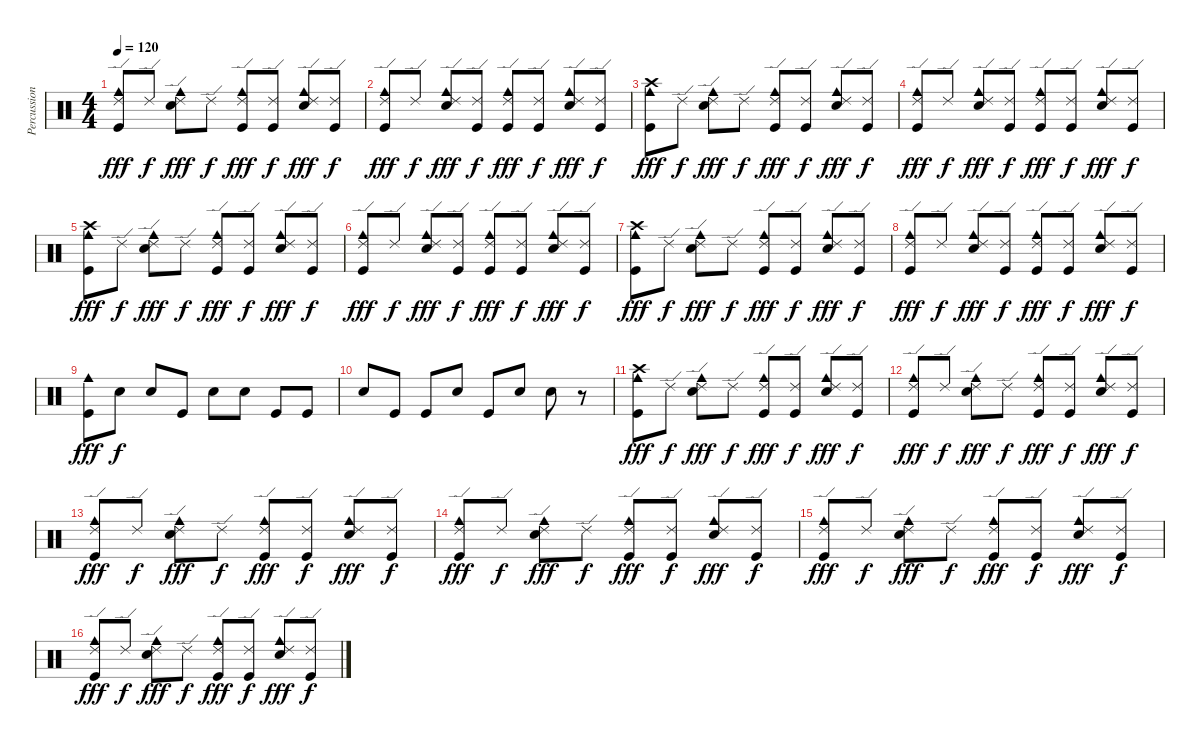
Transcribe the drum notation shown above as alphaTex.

\track ("Percussion" "Percussion") {instrument percussion}
\staff {score}
\articulation defaults
\ts (4 4)
\tempo 120
\clef neutral
\ks c
("Ride (edge) 2" "Cowbell medium (hit)" "Kick (hit)").8{dy fff} "Ride (edge) 2".8{dy f} ("Ride (edge) 2" "Cowbell medium (hit)" "Snare (hit) 2").8{dy fff} "Ride (edge) 2".8{dy f} ("Ride (edge) 2" "Cowbell medium (hit)" "Kick (hit)").8{dy fff} ("Ride (edge) 2" "Kick (hit)").8{dy f} ("Ride (edge) 2" "Cowbell medium (hit)" "Snare (hit) 2").8{dy fff} ("Ride (edge) 2" "Kick (hit)").8{dy f} |
("Ride (edge) 2" "Cowbell medium (hit)" "Kick (hit)").8{dy fff} "Ride (edge) 2".8{dy f} ("Ride (edge) 2" "Cowbell medium (hit)" "Snare (hit) 2").8{dy fff} ("Ride (edge) 2" "Kick (hit)").8{dy f} ("Ride (edge) 2" "Cowbell medium (hit)" "Kick (hit)").8{dy fff} ("Ride (edge) 2" "Kick (hit)").8{dy f} ("Ride (edge) 2" "Cowbell medium (hit)" "Snare (hit) 2").8{dy fff} ("Ride (edge) 2" "Kick (hit)").8{dy f} |
("Crash high (hit)" "Cowbell medium (hit)" "Kick (hit)").8{dy fff} "Ride (edge) 2".8{dy f} ("Ride (edge) 2" "Cowbell medium (hit)" "Snare (hit) 2").8{dy fff} "Ride (edge) 2".8{dy f} ("Ride (edge) 2" "Cowbell medium (hit)" "Kick (hit)").8{dy fff} ("Ride (edge) 2" "Kick (hit)").8{dy f} ("Ride (edge) 2" "Cowbell medium (hit)" "Snare (hit) 2").8{dy fff} ("Ride (edge) 2" "Kick (hit)").8{dy f} |
("Ride (edge) 2" "Cowbell medium (hit)" "Kick (hit)").8{dy fff} "Ride (edge) 2".8{dy f} ("Ride (edge) 2" "Cowbell medium (hit)" "Snare (hit) 2").8{dy fff} ("Ride (edge) 2" "Kick (hit)").8{dy f} ("Ride (edge) 2" "Cowbell medium (hit)" "Kick (hit)").8{dy fff} ("Ride (edge) 2" "Kick (hit)").8{dy f} ("Ride (edge) 2" "Cowbell medium (hit)" "Snare (hit) 2").8{dy fff} ("Ride (edge) 2" "Kick (hit)").8{dy f} |
("Crash high (hit)" "Cowbell medium (hit)" "Kick (hit)").8{dy fff} "Ride (edge) 2".8{dy f} ("Ride (edge) 2" "Cowbell medium (hit)" "Snare (hit) 2").8{dy fff} "Ride (edge) 2".8{dy f} ("Ride (edge) 2" "Cowbell medium (hit)" "Kick (hit)").8{dy fff} ("Ride (edge) 2" "Kick (hit)").8{dy f} ("Ride (edge) 2" "Cowbell medium (hit)" "Snare (hit) 2").8{dy fff} ("Ride (edge) 2" "Kick (hit)").8{dy f} |
("Ride (edge) 2" "Cowbell medium (hit)" "Kick (hit)").8{dy fff} "Ride (edge) 2".8{dy f} ("Ride (edge) 2" "Cowbell medium (hit)" "Snare (hit) 2").8{dy fff} ("Ride (edge) 2" "Kick (hit)").8{dy f} ("Ride (edge) 2" "Cowbell medium (hit)" "Kick (hit)").8{dy fff} ("Ride (edge) 2" "Kick (hit)").8{dy f} ("Ride (edge) 2" "Cowbell medium (hit)" "Snare (hit) 2").8{dy fff} ("Ride (edge) 2" "Kick (hit)").8{dy f} |
("Crash high (hit)" "Cowbell medium (hit)" "Kick (hit)").8{dy fff} "Ride (edge) 2".8{dy f} ("Ride (edge) 2" "Cowbell medium (hit)" "Snare (hit) 2").8{dy fff} "Ride (edge) 2".8{dy f} ("Ride (edge) 2" "Cowbell medium (hit)" "Kick (hit)").8{dy fff} ("Ride (edge) 2" "Kick (hit)").8{dy f} ("Ride (edge) 2" "Cowbell medium (hit)" "Snare (hit) 2").8{dy fff} ("Ride (edge) 2" "Kick (hit)").8{dy f} |
("Ride (edge) 2" "Cowbell medium (hit)" "Kick (hit)").8{dy fff} "Ride (edge) 2".8{dy f} ("Ride (edge) 2" "Cowbell medium (hit)" "Snare (hit) 2").8{dy fff} ("Ride (edge) 2" "Kick (hit)").8{dy f} ("Ride (edge) 2" "Cowbell medium (hit)" "Kick (hit)").8{dy fff} ("Ride (edge) 2" "Kick (hit)").8{dy f} ("Ride (edge) 2" "Cowbell medium (hit)" "Snare (hit) 2").8{dy fff} ("Ride (edge) 2" "Kick (hit)").8{dy f} |
("Cowbell medium (hit)" "Kick (hit)").8{dy fff} "Snare (hit) 2".8{dy f} "Snare (hit) 2".8 "Kick (hit)".8 "Snare (hit) 2".8 "Snare (hit) 2".8 "Kick (hit)".8 "Kick (hit)".8 |
"Snare (hit) 2".8 "Kick (hit)".8 "Kick (hit)".8 "Snare (hit) 2".8 "Kick (hit)".8 "Snare (hit) 2".8 "Snare (hit) 2".8 r.8 |
("Crash high (hit)" "Cowbell medium (hit)" "Kick (hit)").8{dy fff} "Ride (edge) 2".8{dy f} ("Ride (edge) 2" "Cowbell medium (hit)" "Snare (hit) 2").8{dy fff} "Ride (edge) 2".8{dy f} ("Ride (edge) 2" "Cowbell medium (hit)" "Kick (hit)").8{dy fff} ("Ride (edge) 2" "Kick (hit)").8{dy f} ("Ride (edge) 2" "Cowbell medium (hit)" "Snare (hit) 2").8{dy fff} ("Ride (edge) 2" "Kick (hit)").8{dy f} |
("Ride (edge) 2" "Cowbell medium (hit)" "Kick (hit)").8{dy fff} "Ride (edge) 2".8{dy f} ("Ride (edge) 2" "Cowbell medium (hit)" "Snare (hit) 2").8{dy fff} "Ride (edge) 2".8{dy f} ("Ride (edge) 2" "Cowbell medium (hit)" "Kick (hit)").8{dy fff} ("Ride (edge) 2" "Kick (hit)").8{dy f} ("Ride (edge) 2" "Cowbell medium (hit)" "Snare (hit) 2").8{dy fff} ("Ride (edge) 2" "Kick (hit)").8{dy f} |
("Ride (edge) 2" "Cowbell medium (hit)" "Kick (hit)").8{dy fff} "Ride (edge) 2".8{dy f} ("Ride (edge) 2" "Cowbell medium (hit)" "Snare (hit) 2").8{dy fff} "Ride (edge) 2".8{dy f} ("Ride (edge) 2" "Cowbell medium (hit)" "Kick (hit)").8{dy fff} ("Ride (edge) 2" "Kick (hit)").8{dy f} ("Ride (edge) 2" "Cowbell medium (hit)" "Snare (hit) 2").8{dy fff} ("Ride (edge) 2" "Kick (hit)").8{dy f} |
("Ride (edge) 2" "Cowbell medium (hit)" "Kick (hit)").8{dy fff} "Ride (edge) 2".8{dy f} ("Ride (edge) 2" "Cowbell medium (hit)" "Snare (hit) 2").8{dy fff} "Ride (edge) 2".8{dy f} ("Ride (edge) 2" "Cowbell medium (hit)" "Kick (hit)").8{dy fff} ("Ride (edge) 2" "Kick (hit)").8{dy f} ("Ride (edge) 2" "Cowbell medium (hit)" "Snare (hit) 2").8{dy fff} ("Ride (edge) 2" "Kick (hit)").8{dy f} |
("Ride (edge) 2" "Cowbell medium (hit)" "Kick (hit)").8{dy fff} "Ride (edge) 2".8{dy f} ("Ride (edge) 2" "Cowbell medium (hit)" "Snare (hit) 2").8{dy fff} "Ride (edge) 2".8{dy f} ("Ride (edge) 2" "Cowbell medium (hit)" "Kick (hit)").8{dy fff} ("Ride (edge) 2" "Kick (hit)").8{dy f} ("Ride (edge) 2" "Cowbell medium (hit)" "Snare (hit) 2").8{dy fff} ("Ride (edge) 2" "Kick (hit)").8{dy f} |
("Ride (edge) 2" "Cowbell medium (hit)" "Kick (hit)").8{dy fff} "Ride (edge) 2".8{dy f} ("Ride (edge) 2" "Cowbell medium (hit)" "Snare (hit) 2").8{dy fff} "Ride (edge) 2".8{dy f} ("Ride (edge) 2" "Cowbell medium (hit)" "Kick (hit)").8{dy fff} ("Ride (edge) 2" "Kick (hit)").8{dy f} ("Ride (edge) 2" "Cowbell medium (hit)" "Snare (hit) 2").8{dy fff} ("Ride (edge) 2" "Kick (hit)").8{dy f}
